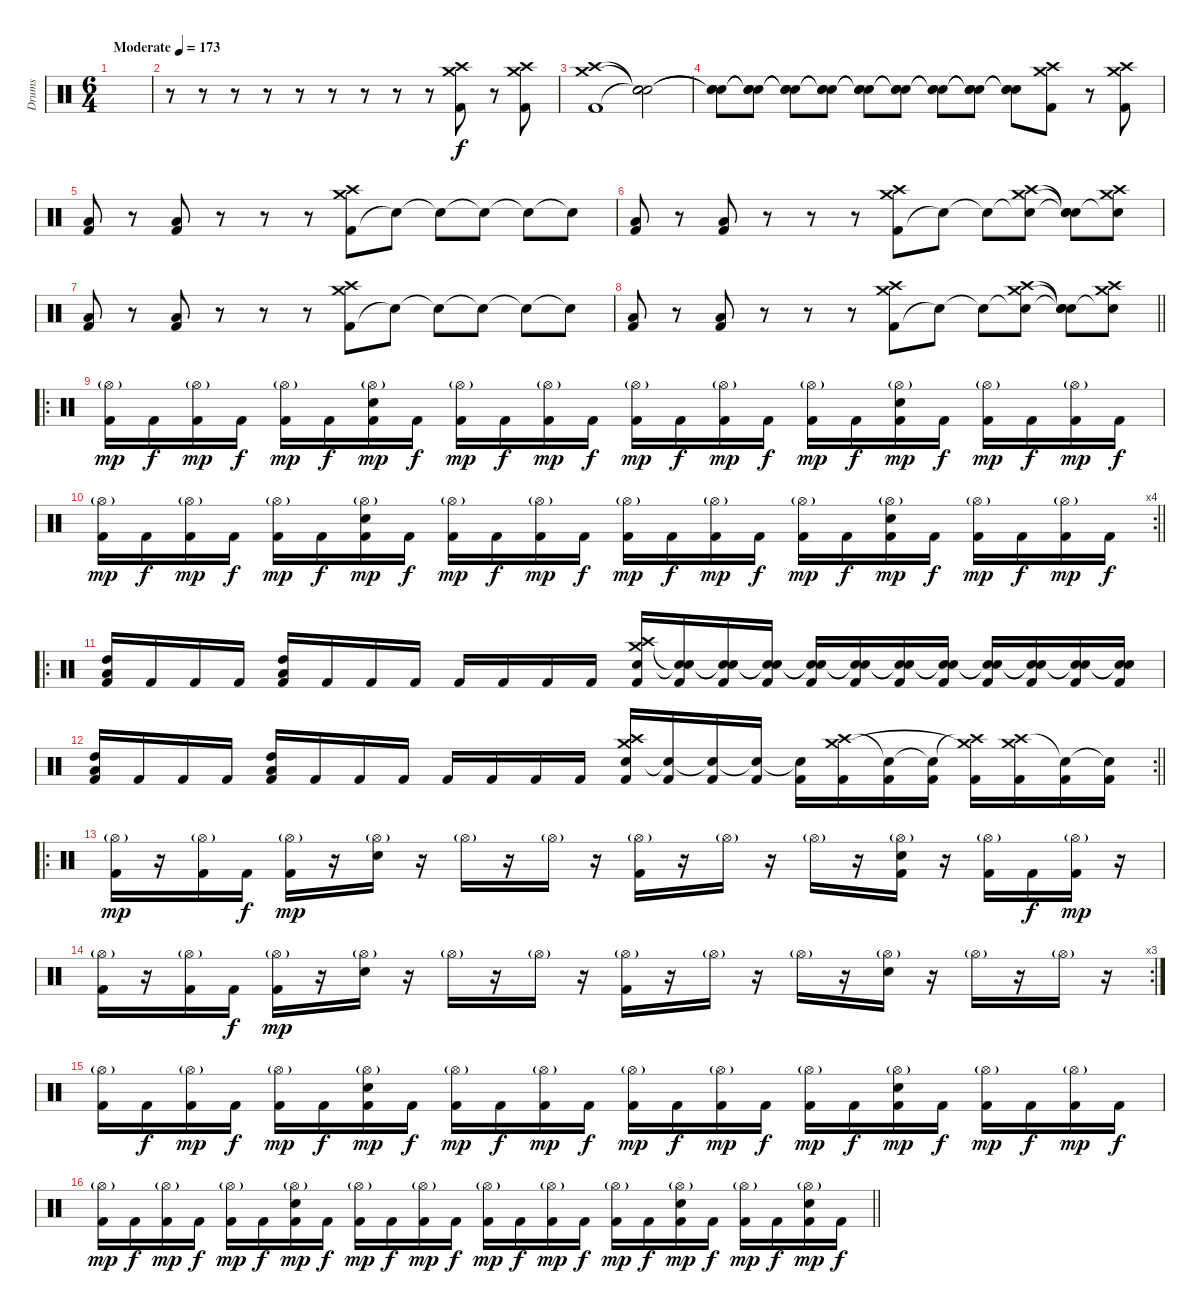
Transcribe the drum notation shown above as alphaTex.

\track ("Drums" "Drums") {instrument percussion}
\staff {score}
\articulation defaults
\ts (6 4)
\section ("" "")
\tempo (173 "Moderate")
\clef neutral
\ks c
|
r.8 r.8 r.8 r.8 r.8 r.8 r.8 r.8 r.8 ("Kick (hit) 2" "Crash high (hit)" "Crash medium (hit)").8 r.8 ("Kick (hit) 2" "Crash high (hit)" "Crash medium (hit)").8 |
("Kick (hit) 2" "Crash high (hit)" "Crash medium (hit)").1 ("Snare (hit)"{t} "Snare (hit)"{t} "Snare (hit)"{t}).2 |
("Snare (hit)"{t} "Snare (hit)"{t} "Snare (hit)"{t}).8 ("Snare (hit)"{t} "Snare (hit)"{t} "Snare (hit)"{t}).8 ("Snare (hit)"{t} "Snare (hit)"{t} "Snare (hit)"{t}).8 ("Snare (hit)"{t} "Snare (hit)"{t} "Snare (hit)"{t}).8 ("Snare (hit)"{t} "Snare (hit)"{t} "Snare (hit)"{t}).8 ("Snare (hit)"{t} "Snare (hit)"{t} "Snare (hit)"{t}).8 ("Snare (hit)"{t} "Snare (hit)"{t} "Snare (hit)"{t}).8 ("Snare (hit)"{t} "Snare (hit)"{t} "Snare (hit)"{t}).8 ("Snare (hit)"{t} "Snare (hit)"{t} "Snare (hit)"{t}).8 ("Kick (hit) 2" "Crash high (hit)" "Crash medium (hit)").8 r.8 ("Kick (hit) 2" "Crash high (hit)" "Crash medium (hit)").8 |
("Kick (hit) 2" "Low Tom (hit)").8 r.8 ("Kick (hit) 2" "Low Tom (hit)").8 r.8 r.8 r.8 ("Kick (hit) 2" "Crash high (hit)" "Crash medium (hit)").8 "Snare (hit)"{t}.8 "Snare (hit)"{t}.8 "Snare (hit)"{t}.8 "Snare (hit)"{t}.8 "Snare (hit)"{t}.8 |
("Kick (hit) 2" "Low Tom (hit)").8 r.8 ("Kick (hit) 2" "Low Tom (hit)").8 r.8 r.8 r.8 ("Kick (hit) 2" "Crash high (hit)" "Crash medium (hit)").8 "Snare (hit)"{t}.8 "Snare (hit)"{t}.8 ("Snare (hit)"{t} "Crash high (hit)" "Crash medium (hit)").8 ("Snare (hit)"{t} "Snare (hit)"{t} "Snare (hit)"{t}).8 ("Snare (hit)"{t} "Crash high (hit)" "Crash medium (hit)").8 |
("Kick (hit) 2" "Low Tom (hit)").8 r.8 ("Kick (hit) 2" "Low Tom (hit)").8 r.8 r.8 r.8 ("Kick (hit) 2" "Crash high (hit)" "Crash medium (hit)").8 "Snare (hit)"{t}.8 "Snare (hit)"{t}.8 "Snare (hit)"{t}.8 "Snare (hit)"{t}.8 "Snare (hit)"{t}.8 |
\barLineRight lightlight
("Kick (hit) 2" "Low Tom (hit)").8 r.8 ("Kick (hit) 2" "Low Tom (hit)").8 r.8 r.8 r.8 ("Kick (hit) 2" "Crash high (hit)" "Crash medium (hit)").8 "Snare (hit)"{t}.8 "Snare (hit)"{t}.8 ("Snare (hit)"{t} "Crash high (hit)" "Crash medium (hit)").8 ("Snare (hit)"{t} "Snare (hit)"{t} "Snare (hit)"{t}).8 ("Snare (hit)"{t} "Crash high (hit)" "Crash medium (hit)").8 |
\ro
\section ("" "")
("Kick (hit) 2" "Hi-Hat (open)"{g}).16{dy mp} "Kick (hit) 2".16{dy f} ("Kick (hit) 2" "Hi-Hat (open)"{g}).16{dy mp} "Kick (hit) 2".16{dy f} ("Kick (hit) 2" "Hi-Hat (open)"{g}).16{dy mp} "Kick (hit) 2".16{dy f} ("Kick (hit) 2" "Snare (hit) 2" "Hi-Hat (open)"{g}).16{dy mp} "Kick (hit) 2".16{dy f} ("Kick (hit) 2" "Hi-Hat (open)"{g}).16{dy mp} "Kick (hit) 2".16{dy f} ("Kick (hit) 2" "Hi-Hat (open)"{g}).16{dy mp} "Kick (hit) 2".16{dy f} ("Kick (hit) 2" "Hi-Hat (open)"{g}).16{dy mp} "Kick (hit) 2".16{dy f} ("Kick (hit) 2" "Hi-Hat (open)"{g}).16{dy mp} "Kick (hit) 2".16{dy f} ("Kick (hit) 2" "Hi-Hat (open)"{g}).16{dy mp} "Kick (hit) 2".16{dy f} ("Kick (hit) 2" "Snare (hit) 2" "Hi-Hat (open)"{g}).16{dy mp} "Kick (hit) 2".16{dy f} ("Kick (hit) 2" "Hi-Hat (open)"{g}).16{dy mp} "Kick (hit) 2".16{dy f} ("Kick (hit) 2" "Hi-Hat (open)"{g}).16{dy mp} "Kick (hit) 2".16{dy f} |
\rc 4
\barLineRight lightlight
("Kick (hit) 2" "Hi-Hat (open)"{g}).16{dy mp} "Kick (hit) 2".16{dy f} ("Kick (hit) 2" "Hi-Hat (open)"{g}).16{dy mp} "Kick (hit) 2".16{dy f} ("Kick (hit) 2" "Hi-Hat (open)"{g}).16{dy mp} "Kick (hit) 2".16{dy f} ("Kick (hit) 2" "Snare (hit) 2" "Hi-Hat (open)"{g}).16{dy mp} "Kick (hit) 2".16{dy f} ("Kick (hit) 2" "Hi-Hat (open)"{g}).16{dy mp} "Kick (hit) 2".16{dy f} ("Kick (hit) 2" "Hi-Hat (open)"{g}).16{dy mp} "Kick (hit) 2".16{dy f} ("Kick (hit) 2" "Hi-Hat (open)"{g}).16{dy mp} "Kick (hit) 2".16{dy f} ("Kick (hit) 2" "Hi-Hat (open)"{g}).16{dy mp} "Kick (hit) 2".16{dy f} ("Kick (hit) 2" "Hi-Hat (open)"{g}).16{dy mp} "Kick (hit) 2".16{dy f} ("Kick (hit) 2" "Snare (hit) 2" "Hi-Hat (open)"{g}).16{dy mp} "Kick (hit) 2".16{dy f} ("Kick (hit) 2" "Hi-Hat (open)"{g}).16{dy mp} "Kick (hit) 2".16{dy f} ("Kick (hit) 2" "Hi-Hat (open)"{g}).16{dy mp} "Kick (hit) 2".16{dy f} |
\ro
\section ("" "")
("Kick (hit) 2" "Low Tom (hit)" "High Tom (hit)").16 "Kick (hit) 2".16 "Kick (hit) 2".16 "Kick (hit) 2".16 ("Kick (hit) 2" "Low Tom (hit)" "High Tom (hit)").16 "Kick (hit) 2".16 "Kick (hit) 2".16 "Kick (hit) 2".16 "Kick (hit) 2".16 "Kick (hit) 2".16 "Kick (hit) 2".16 "Kick (hit) 2".16 ("Kick (hit) 2" "Snare (hit) 2" "Crash high (hit)" "Crash medium (hit)").16 ("Kick (hit) 2" "Snare (hit)"{t} "Snare (hit)"{t}).16 ("Kick (hit) 2" "Snare (hit)"{t} "Snare (hit)"{t}).16 ("Kick (hit) 2" "Snare (hit)"{t} "Snare (hit)"{t}).16 ("Kick (hit) 2" "Snare (hit)"{t} "Snare (hit)"{t}).16 ("Kick (hit) 2" "Snare (hit)"{t} "Snare (hit)"{t}).16 ("Kick (hit) 2" "Snare (hit)"{t} "Snare (hit)"{t}).16 ("Kick (hit) 2" "Snare (hit)"{t} "Snare (hit)"{t}).16 ("Kick (hit) 2" "Snare (hit)"{t} "Snare (hit)"{t}).16 ("Kick (hit) 2" "Snare (hit)"{t} "Snare (hit)"{t}).16 ("Kick (hit) 2" "Snare (hit)"{t} "Snare (hit)"{t}).16 ("Kick (hit) 2" "Snare (hit)"{t} "Snare (hit)"{t}).16 |
\rc 2
\barLineRight lightlight
("Kick (hit) 2" "Low Tom (hit)" "High Tom (hit)").16 "Kick (hit) 2".16 "Kick (hit) 2".16 "Kick (hit) 2".16 ("Kick (hit) 2" "Low Tom (hit)" "High Tom (hit)").16 "Kick (hit) 2".16 "Kick (hit) 2".16 "Kick (hit) 2".16 "Kick (hit) 2".16 "Kick (hit) 2".16 "Kick (hit) 2".16 "Kick (hit) 2".16 ("Kick (hit) 2" "Snare (hit) 2" "Crash high (hit)" "Crash medium (hit)").16 ("Kick (hit) 2" "Snare (hit)"{t}).16 ("Kick (hit) 2" "Snare (hit)"{t}).16 ("Kick (hit) 2" "Snare (hit)"{t}).16 ("Kick (hit) 2" "Snare (hit)"{t}).16 ("Kick (hit) 2" "Crash high (hit)" "Crash medium (hit)").16 ("Kick (hit) 2" "Snare (hit)"{t}).16 ("Kick (hit) 2" "Snare (hit)"{t}).16 ("Kick (hit) 2" "Crash high (hit)"{t} "Crash medium (hit)"{t}).16 ("Kick (hit) 2" "Crash high (hit)" "Crash medium (hit)").16 ("Kick (hit) 2" "Snare (hit)"{t}).16 ("Kick (hit) 2" "Snare (hit)"{t}).16 |
\ro
\section ("" "")
("Kick (hit) 2" "Hi-Hat (open)"{g}).16{dy mp} r.16 ("Kick (hit) 2" "Hi-Hat (open)"{g}).16 "Kick (hit) 2".16{dy f} ("Kick (hit) 2" "Hi-Hat (open)"{g}).16{dy mp} r.16 ("Snare (hit) 2" "Hi-Hat (open)"{g}).16 r.16 "Hi-Hat (open)"{g}.16 r.16 "Hi-Hat (open)"{g}.16 r.16 ("Kick (hit) 2" "Hi-Hat (open)"{g}).16 r.16 "Hi-Hat (open)"{g}.16 r.16 "Hi-Hat (open)"{g}.16 r.16 ("Kick (hit) 2" "Snare (hit) 2" "Hi-Hat (open)"{g}).16 r.16 ("Kick (hit) 2" "Hi-Hat (open)"{g}).16 "Kick (hit) 2".16{dy f} ("Kick (hit) 2" "Hi-Hat (open)"{g}).16{dy mp} r.16 |
\rc 3
("Kick (hit) 2" "Hi-Hat (open)"{g}).16 r.16 ("Kick (hit) 2" "Hi-Hat (open)"{g}).16 "Kick (hit) 2".16{dy f} ("Kick (hit) 2" "Hi-Hat (open)"{g}).16{dy mp} r.16 ("Snare (hit) 2" "Hi-Hat (open)"{g}).16 r.16 "Hi-Hat (open)"{g}.16 r.16 "Hi-Hat (open)"{g}.16 r.16 ("Kick (hit) 2" "Hi-Hat (open)"{g}).16 r.16 "Hi-Hat (open)"{g}.16 r.16 "Hi-Hat (open)"{g}.16 r.16 ("Snare (hit) 2" "Hi-Hat (open)"{g}).16 r.16 "Hi-Hat (open)"{g}.16 r.16 "Hi-Hat (open)"{g}.16 r.16 |
("Kick (hit) 2" "Hi-Hat (open)"{g}).16 "Kick (hit) 2".16{dy f} ("Kick (hit) 2" "Hi-Hat (open)"{g}).16{dy mp} "Kick (hit) 2".16{dy f} ("Kick (hit) 2" "Hi-Hat (open)"{g}).16{dy mp} "Kick (hit) 2".16{dy f} ("Kick (hit) 2" "Snare (hit) 2" "Hi-Hat (open)"{g}).16{dy mp} "Kick (hit) 2".16{dy f} ("Kick (hit) 2" "Hi-Hat (open)"{g}).16{dy mp} "Kick (hit) 2".16{dy f} ("Kick (hit) 2" "Hi-Hat (open)"{g}).16{dy mp} "Kick (hit) 2".16{dy f} ("Kick (hit) 2" "Hi-Hat (open)"{g}).16{dy mp} "Kick (hit) 2".16{dy f} ("Kick (hit) 2" "Hi-Hat (open)"{g}).16{dy mp} "Kick (hit) 2".16{dy f} ("Kick (hit) 2" "Hi-Hat (open)"{g}).16{dy mp} "Kick (hit) 2".16{dy f} ("Kick (hit) 2" "Snare (hit) 2" "Hi-Hat (open)"{g}).16{dy mp} "Kick (hit) 2".16{dy f} ("Kick (hit) 2" "Hi-Hat (open)"{g}).16{dy mp} "Kick (hit) 2".16{dy f} ("Kick (hit) 2" "Hi-Hat (open)"{g}).16{dy mp} "Kick (hit) 2".16{dy f} |
\barLineRight lightlight
("Kick (hit) 2" "Hi-Hat (open)"{g}).16{dy mp} "Kick (hit) 2".16{dy f} ("Kick (hit) 2" "Hi-Hat (open)"{g}).16{dy mp} "Kick (hit) 2".16{dy f} ("Kick (hit) 2" "Hi-Hat (open)"{g}).16{dy mp} "Kick (hit) 2".16{dy f} ("Kick (hit) 2" "Snare (hit) 2" "Hi-Hat (open)"{g}).16{dy mp} "Kick (hit) 2".16{dy f} ("Kick (hit) 2" "Hi-Hat (open)"{g}).16{dy mp} "Kick (hit) 2".16{dy f} ("Kick (hit) 2" "Hi-Hat (open)"{g}).16{dy mp} "Kick (hit) 2".16{dy f} ("Kick (hit) 2" "Hi-Hat (open)"{g}).16{dy mp} "Kick (hit) 2".16{dy f} ("Kick (hit) 2" "Hi-Hat (open)"{g}).16{dy mp} "Kick (hit) 2".16{dy f} ("Kick (hit) 2" "Hi-Hat (open)"{g}).16{dy mp} "Kick (hit) 2".16{dy f} ("Kick (hit) 2" "Snare (hit) 2" "Hi-Hat (open)"{g}).16{dy mp} "Kick (hit) 2".16{dy f} ("Kick (hit) 2" "Hi-Hat (open)"{g}).16{dy mp} "Kick (hit) 2".16{dy f} ("Kick (hit) 2" "Snare (hit) 2" "Hi-Hat (open)"{g}).16{dy mp} "Kick (hit) 2".16{dy f}
